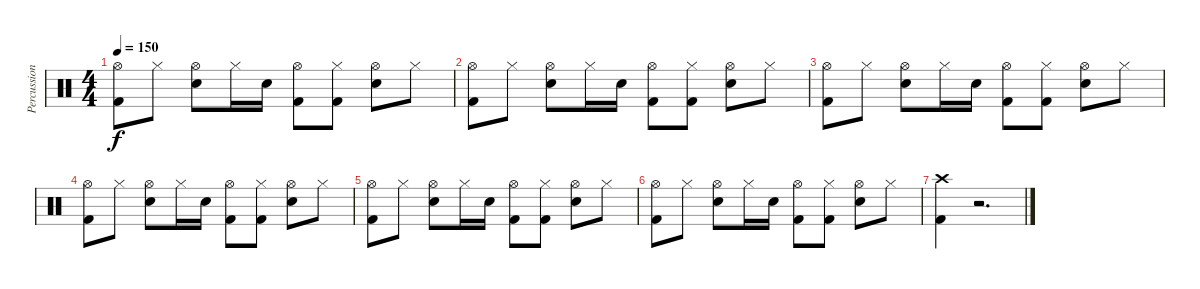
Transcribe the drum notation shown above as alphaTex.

\track ("Percussion" "Percussion") {instrument percussion}
\staff {score}
\articulation defaults
\ts (4 4)
\tempo 150
\clef neutral
\ks c
("Hi-Hat (open)" "Kick (hit) 2").8{dy f} "Hi-Hat (closed)".8 ("Hi-Hat (open)" "Electric Snare (hit)").8 "Hi-Hat (closed)".16 "Electric Snare (hit)".16 ("Hi-Hat (open)" "Kick (hit) 2").8 ("Hi-Hat (closed)" "Kick (hit) 2").8 ("Hi-Hat (open)" "Electric Snare (hit)").8 "Hi-Hat (closed)".8 |
("Hi-Hat (open)" "Kick (hit) 2").8 "Hi-Hat (closed)".8 ("Hi-Hat (open)" "Electric Snare (hit)").8 "Hi-Hat (closed)".16 "Electric Snare (hit)".16 ("Hi-Hat (open)" "Kick (hit) 2").8 ("Hi-Hat (closed)" "Kick (hit) 2").8 ("Hi-Hat (open)" "Electric Snare (hit)").8 "Hi-Hat (closed)".8 |
("Hi-Hat (open)" "Kick (hit) 2").8 "Hi-Hat (closed)".8 ("Hi-Hat (open)" "Electric Snare (hit)").8 "Hi-Hat (closed)".16 "Electric Snare (hit)".16 ("Hi-Hat (open)" "Kick (hit) 2").8 ("Hi-Hat (closed)" "Kick (hit) 2").8 ("Hi-Hat (open)" "Electric Snare (hit)").8 "Hi-Hat (closed)".8 |
("Hi-Hat (open)" "Kick (hit) 2").8 "Hi-Hat (closed)".8 ("Hi-Hat (open)" "Electric Snare (hit)").8 "Hi-Hat (closed)".16 "Electric Snare (hit)".16 ("Hi-Hat (open)" "Kick (hit) 2").8 ("Hi-Hat (closed)" "Kick (hit) 2").8 ("Hi-Hat (open)" "Electric Snare (hit)").8 "Hi-Hat (closed)".8 |
("Hi-Hat (open)" "Kick (hit) 2").8 "Hi-Hat (closed)".8 ("Hi-Hat (open)" "Electric Snare (hit)").8 "Hi-Hat (closed)".16 "Electric Snare (hit)".16 ("Hi-Hat (open)" "Kick (hit) 2").8 ("Hi-Hat (closed)" "Kick (hit) 2").8 ("Hi-Hat (open)" "Electric Snare (hit)").8 "Hi-Hat (closed)".8 |
("Hi-Hat (open)" "Kick (hit) 2").8 "Hi-Hat (closed)".8 ("Hi-Hat (open)" "Electric Snare (hit)").8 "Hi-Hat (closed)".16 "Electric Snare (hit)".16 ("Hi-Hat (open)" "Kick (hit) 2").8 ("Hi-Hat (closed)" "Kick (hit) 2").8 ("Hi-Hat (open)" "Electric Snare (hit)").8 "Hi-Hat (closed)".8 |
("Crash high (hit)" "Kick (hit) 2").4 r.2{d}
